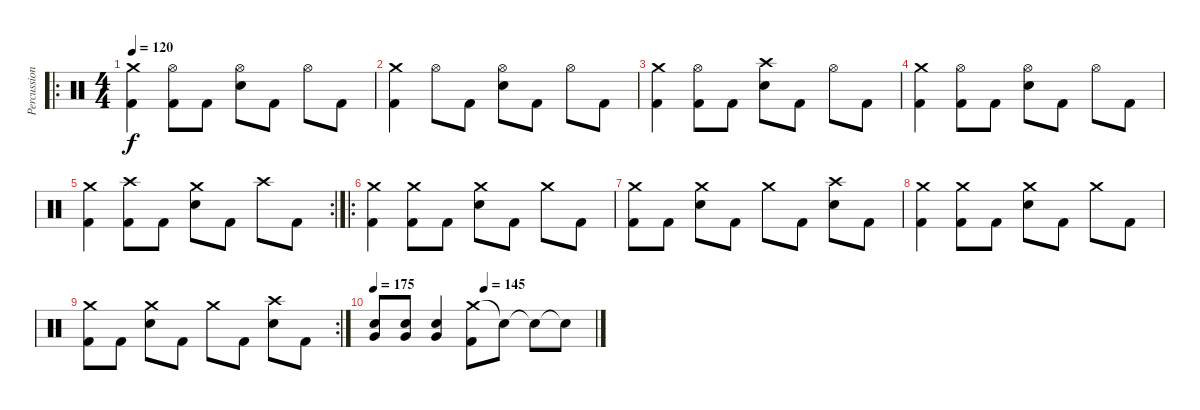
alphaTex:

\track ("Percussion" "Percussion") {instrument percussion}
\staff {score}
\articulation defaults
\ro
\ts (4 4)
\tempo 120
\clef neutral
\ks c
("Crash medium (hit)" "Kick (hit) 2").4{dy f} ("Hi-Hat (open)" "Kick (hit) 2").8 "Kick (hit) 2".8 ("Hi-Hat (open)" "Electric Snare (hit)").8 "Kick (hit) 2".8 "Hi-Hat (open)".8 "Kick (hit) 2".8 |
("Crash medium (hit)" "Kick (hit) 2").4 "Hi-Hat (open)".8 "Kick (hit) 2".8 ("Hi-Hat (open)" "Electric Snare (hit)").8 "Kick (hit) 2".8 "Hi-Hat (open)".8 "Kick (hit) 2".8 |
("Crash medium (hit)" "Kick (hit) 2").4 ("Hi-Hat (open)" "Kick (hit) 2").8 "Kick (hit) 2".8 ("Crash high (hit)" "Electric Snare (hit)").8 "Kick (hit) 2".8 "Hi-Hat (open)".8 "Kick (hit) 2".8 |
("Crash medium (hit)" "Kick (hit) 2").4 ("Hi-Hat (open)" "Kick (hit) 2").8 "Kick (hit) 2".8 ("Hi-Hat (open)" "Electric Snare (hit)").8 "Kick (hit) 2".8 "Hi-Hat (open)".8 "Kick (hit) 2".8 |
\rc 2
("Crash medium (hit)" "Kick (hit) 2").4 ("Crash high (hit)" "Kick (hit) 2").8 "Kick (hit) 2".8 ("Crash medium (hit)" "Electric Snare (hit)").8 "Kick (hit) 2".8 "Crash high (hit)".8 "Kick (hit) 2".8 |
\ro
("Crash medium (hit)" "Kick (hit) 2").4 ("Crash medium (hit)" "Kick (hit) 2").8 "Kick (hit) 2".8 ("Crash medium (hit)" "Electric Snare (hit)").8 "Kick (hit) 2".8 "Crash medium (hit)".8 "Kick (hit) 2".8 |
("Crash medium (hit)" "Kick (hit) 2").8 "Kick (hit) 2".8 ("Crash medium (hit)" "Electric Snare (hit)").8 "Kick (hit) 2".8 "Crash medium (hit)".8 "Kick (hit) 2".8 ("Crash high (hit)" "Electric Snare (hit)").8 "Kick (hit) 2".8 |
("Crash medium (hit)" "Kick (hit) 2").4 ("Crash medium (hit)" "Kick (hit) 2").8 "Kick (hit) 2".8 ("Crash medium (hit)" "Electric Snare (hit)").8 "Kick (hit) 2".8 "Crash medium (hit)".8 "Kick (hit) 2".8 |
\rc 2
("Crash medium (hit)" "Kick (hit) 2").8 "Kick (hit) 2".8 ("Crash medium (hit)" "Electric Snare (hit)").8 "Kick (hit) 2".8 "Crash medium (hit)".8 "Kick (hit) 2".8 ("Crash high (hit)" "Electric Snare (hit)").8 "Kick (hit) 2".8 |
\tempo 175
\tempo (145 0.5)
("Electric Snare (hit)" "Very Low Tom (hit)").8 ("Electric Snare (hit)" "Very Low Tom (hit)").8 ("Electric Snare (hit)" "Very Low Tom (hit)").4 ("Crash medium (hit)" "Kick (hit) 2").8 "Snare (hit)"{t}.8 "Snare (hit)"{t}.8 "Snare (hit)"{t}.8
